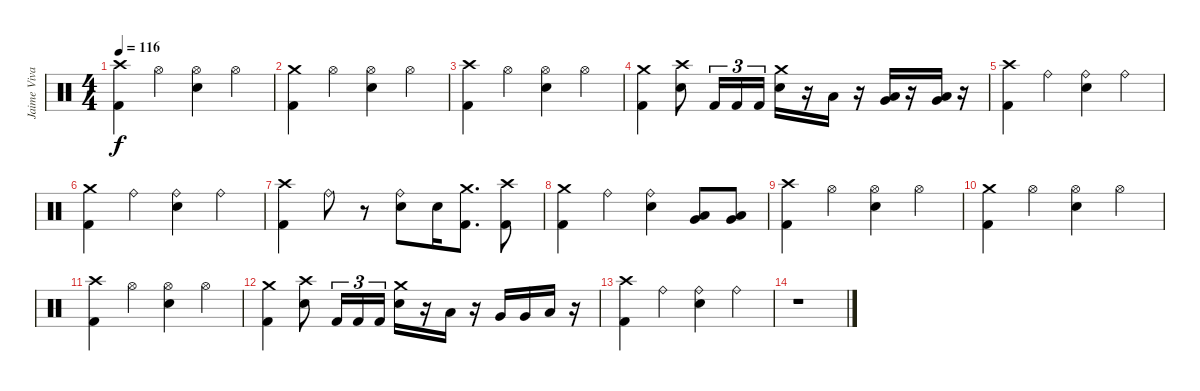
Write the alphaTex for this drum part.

\track ("Jaime Vivar" "Jaime Viva") {instrument percussion}
\staff {score}
\articulation defaults
\ts (4 4)
\tempo 116
\clef neutral
\ks c
("Crash high (hit)" "Kick (hit) 2").4{dy f} "Hi-Hat (open)".4 ("Hi-Hat (open)" "Snare (hit) 2").4 "Hi-Hat (open)".4 |
("Crash medium (hit)" "Kick (hit) 2").4 "Hi-Hat (open)".4 ("Hi-Hat (open)" "Snare (hit) 2").4 "Hi-Hat (open)".4 |
("Crash high (hit)" "Kick (hit) 2").4 "Hi-Hat (open)".4 ("Hi-Hat (open)" "Snare (hit) 2").4 "Hi-Hat (open)".4 |
("Crash medium (hit)" "Kick (hit) 2").4 ("Crash high (hit)" "Snare (hit) 2").8 "Kick (hit) 2".16{tu (3 2)} "Kick (hit) 2".16{tu (3 2)} "Kick (hit) 2".16{tu (3 2)} ("Crash medium (hit)" "Snare (hit) 2").16 r.16 "Low Tom (hit)".16 r.16 ("Low Tom (hit)" "Very Low Tom (hit)").16 r.16 ("Very Low Tom (hit)" "Low Floor Tom (hit)").16 r.16 |
("Crash high (hit)" "Kick (hit) 2").4 "Ride (bell)".4 ("Ride (bell)" "Snare (hit) 2").4 "Ride (bell)".4 |
("Crash medium (hit)" "Kick (hit) 2").4 "Ride (bell)".4 ("Ride (bell)" "Snare (hit) 2").4 "Ride (bell)".4 |
("Crash high (hit)" "Kick (hit) 2").4 "Ride (bell)".8 r.8 ("Ride (bell)" "Snare (hit) 2").8 "Snare (hit) 2".16 ("Crash medium (hit)" "Kick (hit) 2").8{d} ("Crash high (hit)" "Kick (hit) 2").8 |
("Crash medium (hit)" "Kick (hit) 2").4 "Ride (bell)".4 ("Ride (bell)" "Snare (hit) 2").4 ("Low Tom (hit)" "Very Low Tom (hit)").8 ("Low Tom (hit)" "Very Low Tom (hit)").8 |
("Crash high (hit)" "Kick (hit) 2").4 "Hi-Hat (open)".4 ("Hi-Hat (open)" "Snare (hit) 2").4 "Hi-Hat (open)".4 |
("Crash medium (hit)" "Kick (hit) 2").4 "Hi-Hat (open)".4 ("Hi-Hat (open)" "Snare (hit) 2").4 "Hi-Hat (open)".4 |
("Crash high (hit)" "Kick (hit) 2").4 "Hi-Hat (open)".4 ("Hi-Hat (open)" "Snare (hit) 2").4 "Hi-Hat (open)".4 |
("Crash medium (hit)" "Kick (hit) 2").4 ("Crash high (hit)" "Snare (hit) 2").8 "Kick (hit) 2".16{tu (3 2)} "Kick (hit) 2".16{tu (3 2)} "Kick (hit) 2".16{tu (3 2)} ("Crash medium (hit)" "Snare (hit) 2").16 r.16 "Low Tom (hit)".16 r.16 "Very Low Tom (hit)".16 "Very Low Tom (hit)".16 "Low Floor Tom (hit)".16 r.16 |
("Crash high (hit)" "Kick (hit) 2").4 "Ride (bell)".4 ("Ride (bell)" "Snare (hit) 2").4 "Ride (bell)".4 |
r.1
